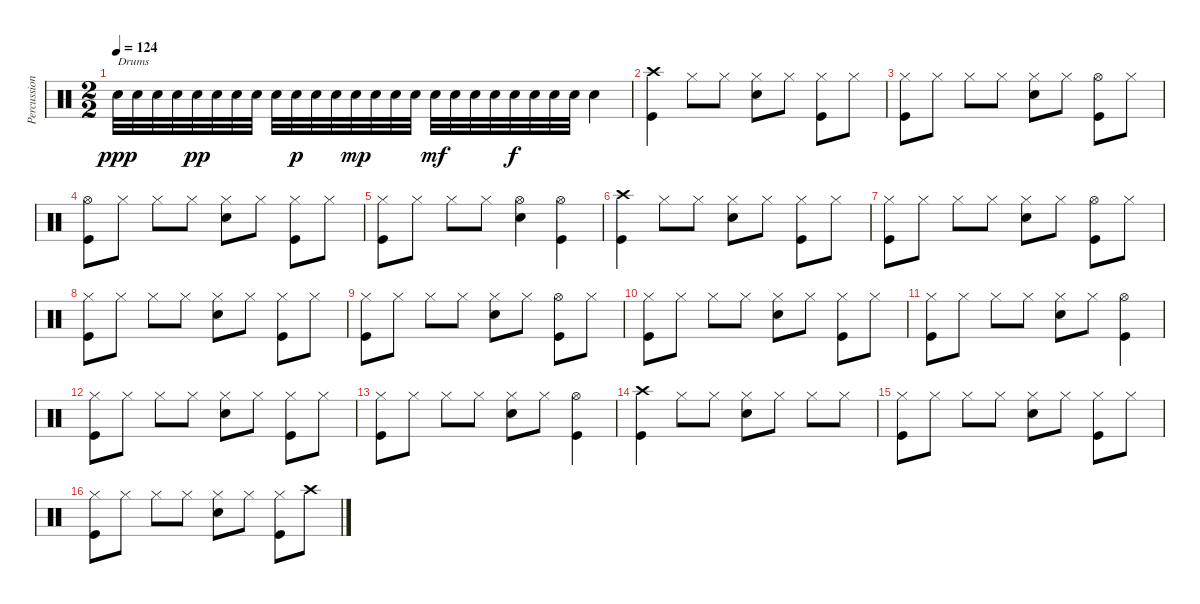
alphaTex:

\track ("Percussions" "Percussion") {instrument percussion}
\staff {score}
\articulation defaults
\ts (2 2)
\tempo 124
\clef neutral
\ks c "Snare (hit) 2".32{txt "Drums" dy ppp} "Snare (hit) 2".32 "Snare (hit) 2".32 "Snare (hit) 2".32 "Snare (hit) 2".32{dy pp} "Snare (hit) 2".32 "Snare (hit) 2".32 "Snare (hit) 2".32 "Snare (hit) 2".32 "Snare (hit) 2".32{dy p} "Snare (hit) 2".32 "Snare (hit) 2".32 "Snare (hit) 2".32{dy mp} "Snare (hit) 2".32 "Snare (hit) 2".32 "Snare (hit) 2".32 "Snare (hit) 2".32{dy mf} "Snare (hit) 2".32 "Snare (hit) 2".32 "Snare (hit) 2".32 "Snare (hit) 2".32{dy f} "Snare (hit) 2".32 "Snare (hit) 2".32 "Snare (hit) 2".32 "Snare (hit) 2".4
|
("Crash high (hit)" "Kick (hit)").4 "Hi-Hat (closed)".8 "Hi-Hat (closed)".8 ("Hi-Hat (closed)" "Snare (hit) 2").8 "Hi-Hat (closed)".8 ("Hi-Hat (closed)" "Kick (hit)").8 "Hi-Hat (closed)".8 |
("Hi-Hat (closed)" "Kick (hit)").8 "Hi-Hat (closed)".8 "Hi-Hat (closed)".8 "Hi-Hat (closed)".8 ("Hi-Hat (closed)" "Snare (hit) 2").8 "Hi-Hat (closed)".8 ("Hi-Hat (open)" "Kick (hit)").8 "Hi-Hat (closed)".8 |
("Hi-Hat (open)" "Kick (hit)").8 "Hi-Hat (closed)".8 "Hi-Hat (closed)".8 "Hi-Hat (closed)".8 ("Hi-Hat (closed)" "Snare (hit) 2").8 "Hi-Hat (closed)".8 ("Hi-Hat (closed)" "Kick (hit)").8 "Hi-Hat (closed)".8 |
("Hi-Hat (closed)" "Kick (hit)").8 "Hi-Hat (closed)".8 "Hi-Hat (closed)".8 "Hi-Hat (closed)".8 ("Hi-Hat (open)" "Snare (hit) 2").4 ("Hi-Hat (open)" "Kick (hit)").4 |
("Crash high (hit)" "Kick (hit)").4 "Hi-Hat (closed)".8 "Hi-Hat (closed)".8 ("Hi-Hat (closed)" "Snare (hit) 2").8 "Hi-Hat (closed)".8 ("Hi-Hat (closed)" "Kick (hit)").8 "Hi-Hat (closed)".8 |
("Hi-Hat (closed)" "Kick (hit)").8 "Hi-Hat (closed)".8 "Hi-Hat (closed)".8 "Hi-Hat (closed)".8 ("Hi-Hat (closed)" "Snare (hit) 2").8 "Hi-Hat (closed)".8 ("Hi-Hat (open)" "Kick (hit)").8 "Hi-Hat (closed)".8 |
("Hi-Hat (closed)" "Kick (hit)").8 "Hi-Hat (closed)".8 "Hi-Hat (closed)".8 "Hi-Hat (closed)".8 ("Hi-Hat (closed)" "Snare (hit) 2").8 "Hi-Hat (closed)".8 ("Hi-Hat (closed)" "Kick (hit)").8 "Hi-Hat (closed)".8 |
("Hi-Hat (closed)" "Kick (hit)").8 "Hi-Hat (closed)".8 "Hi-Hat (closed)".8 "Hi-Hat (closed)".8 ("Hi-Hat (closed)" "Snare (hit) 2").8 "Hi-Hat (closed)".8 ("Hi-Hat (open)" "Kick (hit)").8 "Hi-Hat (closed)".8 |
("Hi-Hat (closed)" "Kick (hit)").8 "Hi-Hat (closed)".8 "Hi-Hat (closed)".8 "Hi-Hat (closed)".8 ("Hi-Hat (closed)" "Snare (hit) 2").8 "Hi-Hat (closed)".8 ("Hi-Hat (closed)" "Kick (hit)").8 "Hi-Hat (closed)".8 |
("Hi-Hat (closed)" "Kick (hit)").8 "Hi-Hat (closed)".8 "Hi-Hat (closed)".8 "Hi-Hat (closed)".8 ("Hi-Hat (closed)" "Snare (hit) 2").8 "Hi-Hat (closed)".8 ("Hi-Hat (open)" "Kick (hit)").4 |
("Hi-Hat (closed)" "Kick (hit)").8 "Hi-Hat (closed)".8 "Hi-Hat (closed)".8 "Hi-Hat (closed)".8 ("Hi-Hat (closed)" "Snare (hit) 2").8 "Hi-Hat (closed)".8 ("Hi-Hat (closed)" "Kick (hit)").8 "Hi-Hat (closed)".8 |
("Hi-Hat (closed)" "Kick (hit)").8 "Hi-Hat (closed)".8 "Hi-Hat (closed)".8 "Hi-Hat (closed)".8 ("Hi-Hat (closed)" "Snare (hit) 2").8 "Hi-Hat (closed)".8 ("Hi-Hat (open)" "Kick (hit)").4 |
("Crash high (hit)" "Kick (hit)").4 "Hi-Hat (closed)".8 "Hi-Hat (closed)".8 ("Hi-Hat (closed)" "Snare (hit) 2").8 "Hi-Hat (closed)".8 "Hi-Hat (closed)".8 "Hi-Hat (closed)".8 |
("Hi-Hat (closed)" "Kick (hit)").8 "Hi-Hat (closed)".8 "Hi-Hat (closed)".8 "Hi-Hat (closed)".8 ("Hi-Hat (closed)" "Snare (hit) 2").8 "Hi-Hat (closed)".8 ("Hi-Hat (closed)" "Kick (hit)").8 "Hi-Hat (closed)".8 |
("Hi-Hat (closed)" "Kick (hit)").8 "Hi-Hat (closed)".8 "Hi-Hat (closed)".8 "Hi-Hat (closed)".8 ("Hi-Hat (closed)" "Snare (hit) 2").8 "Hi-Hat (closed)".8 ("Hi-Hat (closed)" "Kick (hit)").8 "Crash high (hit)".8
